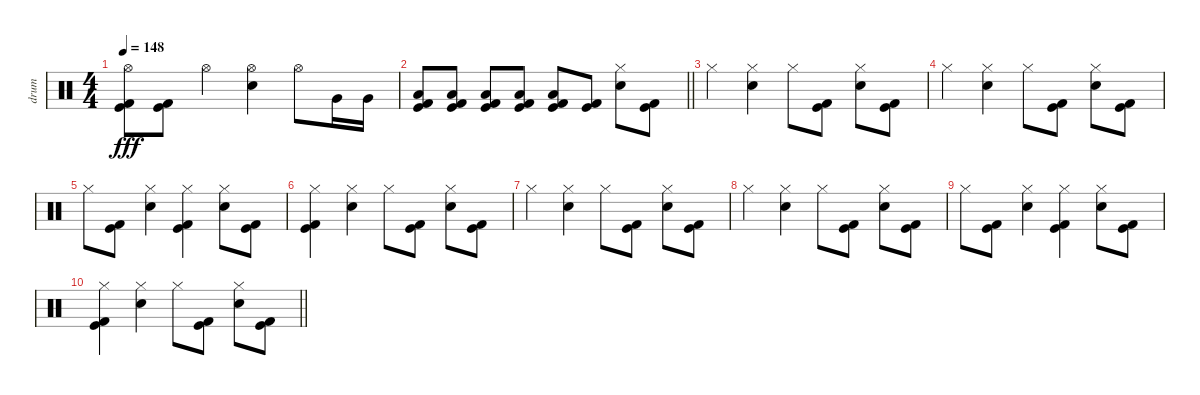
\track ("drum" "drum") {instrument percussion}
\staff {score}
\articulation defaults
\ts (4 4)
\tempo 148
\clef neutral
\ks c
("Hi-Hat (open)" "Kick (hit)" "Kick (hit) 2").8{dy fff} ("Kick (hit)" "Kick (hit) 2").8 "Hi-Hat (open)".4 ("Snare (hit) 2" "Hi-Hat (open)").4 "Hi-Hat (open)".8 "Very Low Tom (hit)".16 "Very Low Tom (hit)".16 |
\barLineRight lightlight
("Low Floor Tom (hit)" "Kick (hit)" "Kick (hit) 2").8 ("Low Floor Tom (hit)" "Kick (hit)" "Kick (hit) 2").8 ("Low Floor Tom (hit)" "Kick (hit)" "Kick (hit) 2").8 ("Low Floor Tom (hit)" "Kick (hit)" "Kick (hit) 2").8 ("Low Floor Tom (hit)" "Kick (hit)" "Kick (hit) 2").8 ("Kick (hit)" "Kick (hit) 2").8 ("Snare (hit) 2" "Hi-Hat (closed)").8 ("Kick (hit)" "Kick (hit) 2").8 |
\section ("" "")
"Hi-Hat (closed)".4 ("Snare (hit) 2" "Hi-Hat (closed)").4 "Hi-Hat (closed)".8 ("Kick (hit)" "Kick (hit) 2").8 ("Snare (hit) 2" "Hi-Hat (closed)").8 ("Kick (hit)" "Kick (hit) 2").8 |
"Hi-Hat (closed)".4 ("Snare (hit) 2" "Hi-Hat (closed)").4 "Hi-Hat (closed)".8 ("Kick (hit)" "Kick (hit) 2").8 ("Snare (hit) 2" "Hi-Hat (closed)").8 ("Kick (hit)" "Kick (hit) 2").8 |
"Hi-Hat (closed)".8 ("Kick (hit)" "Kick (hit) 2").8 ("Snare (hit) 2" "Hi-Hat (closed)").4 ("Hi-Hat (closed)" "Kick (hit)" "Kick (hit) 2").4 ("Snare (hit) 2" "Hi-Hat (closed)").8 ("Kick (hit)" "Kick (hit) 2").8 |
("Hi-Hat (closed)" "Kick (hit)" "Kick (hit) 2").4 ("Snare (hit) 2" "Hi-Hat (closed)").4 "Hi-Hat (closed)".8 ("Kick (hit)" "Kick (hit) 2").8 ("Snare (hit) 2" "Hi-Hat (closed)").8 ("Kick (hit)" "Kick (hit) 2").8 |
"Hi-Hat (closed)".4 ("Snare (hit) 2" "Hi-Hat (closed)").4 "Hi-Hat (closed)".8 ("Kick (hit)" "Kick (hit) 2").8 ("Snare (hit) 2" "Hi-Hat (closed)").8 ("Kick (hit)" "Kick (hit) 2").8 |
"Hi-Hat (closed)".4 ("Snare (hit) 2" "Hi-Hat (closed)").4 "Hi-Hat (closed)".8 ("Kick (hit)" "Kick (hit) 2").8 ("Snare (hit) 2" "Hi-Hat (closed)").8 ("Kick (hit)" "Kick (hit) 2").8 |
"Hi-Hat (closed)".8 ("Kick (hit)" "Kick (hit) 2").8 ("Snare (hit) 2" "Hi-Hat (closed)").4 ("Hi-Hat (closed)" "Kick (hit)" "Kick (hit) 2").4 ("Snare (hit) 2" "Hi-Hat (closed)").8 ("Kick (hit)" "Kick (hit) 2").8 |
\barLineRight lightlight
("Hi-Hat (closed)" "Kick (hit)" "Kick (hit) 2").4 ("Snare (hit) 2" "Hi-Hat (closed)").4 "Hi-Hat (closed)".8 ("Kick (hit)" "Kick (hit) 2").8 ("Snare (hit) 2" "Hi-Hat (closed)").8 ("Kick (hit)" "Kick (hit) 2").8
